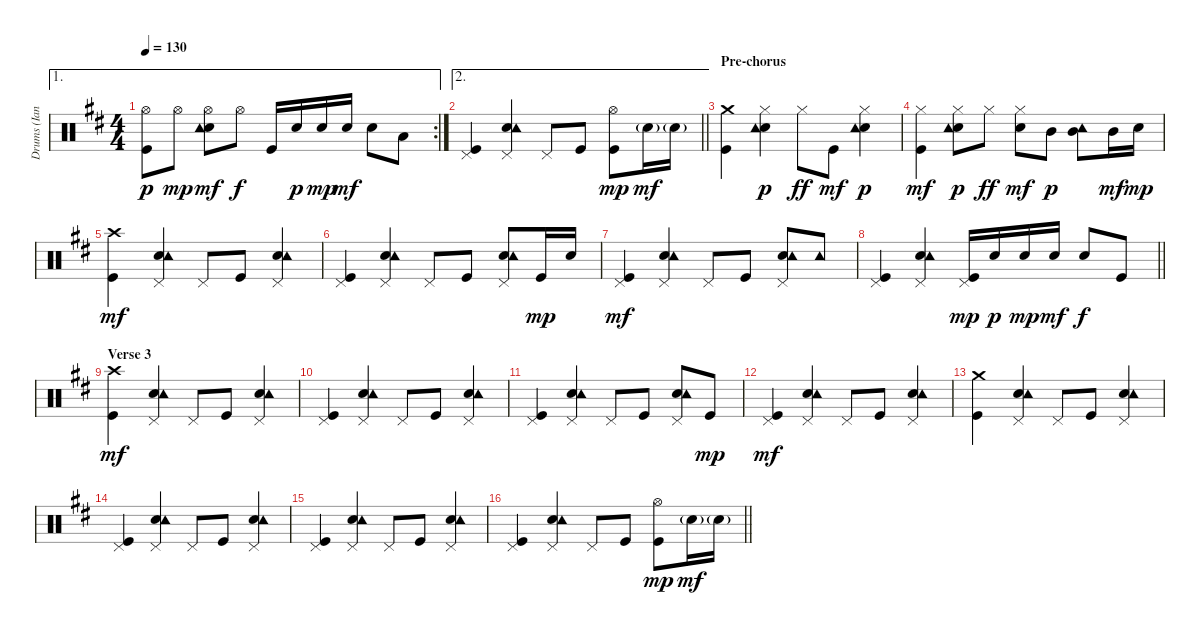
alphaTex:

\track ("Drums (Ian Paice)" "Drums (Ian") {instrument percussion}
\staff {score}
\articulation defaults
\ae 1
\rc 2
\ts (4 4)
\tempo 130
\clef neutral
\ks bminor
("Hi-Hat (open)" "Kick (hit)").8{dy p} "Hi-Hat (open)".8{dy mp} ("Hi-Hat (open)" "Electric Snare (hit)" "Tambourine (hit)").8{dy mf} "Hi-Hat (open)".8{dy f} "Kick (hit)".16 "Electric Snare (hit)".16{dy p} "Electric Snare (hit)".16{dy mp} "Electric Snare (hit)".16{dy mf} "Electric Snare (hit)".8 "Low Tom (hit)".8 |
\ae 2
\barLineRight lightlight
("Pedal Hi-Hat (hit)" "Kick (hit)").4 ("Pedal Hi-Hat (hit)" "Electric Snare (hit)" "Tambourine (hit)").4 "Pedal Hi-Hat (hit)".8 "Kick (hit)".8 ("Hi-Hat (open)" "Kick (hit)").8{dy mp} "Electric Snare (hit)"{g}.16{dy mf} "Electric Snare (hit)"{g}.16 |
\section ("" "Pre-chorus")
("Crash medium (hit)" "Kick (hit)").4 ("Hi-Hat (closed)" "Electric Snare (hit)" "Tambourine (hit)").4{dy p} "Hi-Hat (closed)".8{dy ff} "Kick (hit)".8{dy mf} ("Hi-Hat (closed)" "Electric Snare (hit)" "Tambourine (hit)").4{dy p} |
("Hi-Hat (closed)" "Kick (hit)").4{dy mf} ("Hi-Hat (closed)" "Electric Snare (hit)" "Tambourine (hit)").8{dy p} "Hi-Hat (closed)".8{dy ff} ("Hi-Hat (closed)" "Electric Snare (hit)").8{dy mf} "Mid Tom (hit)".8{dy p} ("Mid Tom (hit)" "Tambourine (hit)").8 "Mid Tom (hit)".16{dy mf} "Electric Snare (hit)".16{dy mp} |
("Crash high (hit)" "Kick (hit)").4{dy mf} ("Pedal Hi-Hat (hit)" "Electric Snare (hit)" "Tambourine (hit)").4 "Pedal Hi-Hat (hit)".8 "Kick (hit)".8 ("Pedal Hi-Hat (hit)" "Electric Snare (hit)" "Tambourine (hit)").4 |
("Pedal Hi-Hat (hit)" "Kick (hit)").4 ("Pedal Hi-Hat (hit)" "Electric Snare (hit)" "Tambourine (hit)").4 "Pedal Hi-Hat (hit)".8 "Kick (hit)".8 ("Pedal Hi-Hat (hit)" "Electric Snare (hit)" "Tambourine (hit)").8 "Kick (hit)".16{dy mp} "Electric Snare (hit)".16 |
("Pedal Hi-Hat (hit)" "Kick (hit)").4{dy mf} ("Pedal Hi-Hat (hit)" "Electric Snare (hit)" "Tambourine (hit)").4 "Pedal Hi-Hat (hit)".8 "Kick (hit)".8 ("Pedal Hi-Hat (hit)" "Electric Snare (hit)" "Tambourine (hit)").8 "Tambourine (hit)".8 |
\barLineRight lightlight
("Pedal Hi-Hat (hit)" "Kick (hit)").4 ("Pedal Hi-Hat (hit)" "Electric Snare (hit)" "Tambourine (hit)").4 ("Pedal Hi-Hat (hit)" "Kick (hit)").16{dy mp} "Electric Snare (hit)".16{dy p} "Electric Snare (hit)".16{dy mp} "Electric Snare (hit)".16{dy mf} "Electric Snare (hit)".8{dy f} "Kick (hit)".8 |
\section ("" "Verse 3")
("Crash high (hit)" "Kick (hit)").4{dy mf} ("Pedal Hi-Hat (hit)" "Electric Snare (hit)" "Tambourine (hit)").4 "Pedal Hi-Hat (hit)".8 "Kick (hit)".8 ("Pedal Hi-Hat (hit)" "Electric Snare (hit)" "Tambourine (hit)").4 |
("Pedal Hi-Hat (hit)" "Kick (hit)").4 ("Pedal Hi-Hat (hit)" "Electric Snare (hit)" "Tambourine (hit)").4 "Pedal Hi-Hat (hit)".8 "Kick (hit)".8 ("Pedal Hi-Hat (hit)" "Electric Snare (hit)" "Tambourine (hit)").4 |
("Pedal Hi-Hat (hit)" "Kick (hit)").4 ("Pedal Hi-Hat (hit)" "Electric Snare (hit)" "Tambourine (hit)").4 "Pedal Hi-Hat (hit)".8 "Kick (hit)".8 ("Pedal Hi-Hat (hit)" "Electric Snare (hit)" "Tambourine (hit)").8 "Kick (hit)".8{dy mp} |
("Pedal Hi-Hat (hit)" "Kick (hit)").4{dy mf} ("Pedal Hi-Hat (hit)" "Electric Snare (hit)" "Tambourine (hit)").4 "Pedal Hi-Hat (hit)".8 "Kick (hit)".8 ("Pedal Hi-Hat (hit)" "Electric Snare (hit)" "Tambourine (hit)").4 |
("Crash medium (hit)" "Kick (hit)").4 ("Pedal Hi-Hat (hit)" "Electric Snare (hit)" "Tambourine (hit)").4 "Pedal Hi-Hat (hit)".8 "Kick (hit)".8 ("Pedal Hi-Hat (hit)" "Electric Snare (hit)" "Tambourine (hit)").4 |
("Pedal Hi-Hat (hit)" "Kick (hit)").4 ("Pedal Hi-Hat (hit)" "Electric Snare (hit)" "Tambourine (hit)").4 "Pedal Hi-Hat (hit)".8 "Kick (hit)".8 ("Pedal Hi-Hat (hit)" "Electric Snare (hit)" "Tambourine (hit)").4 |
("Pedal Hi-Hat (hit)" "Kick (hit)").4 ("Pedal Hi-Hat (hit)" "Electric Snare (hit)" "Tambourine (hit)").4 "Pedal Hi-Hat (hit)".8 "Kick (hit)".8 ("Pedal Hi-Hat (hit)" "Electric Snare (hit)" "Tambourine (hit)").4 |
\barLineRight lightlight
("Pedal Hi-Hat (hit)" "Kick (hit)").4 ("Pedal Hi-Hat (hit)" "Electric Snare (hit)" "Tambourine (hit)").4 "Pedal Hi-Hat (hit)".8 "Kick (hit)".8 ("Hi-Hat (open)" "Kick (hit)").8{dy mp} "Electric Snare (hit)"{g}.16{dy mf} "Electric Snare (hit)"{g}.16
